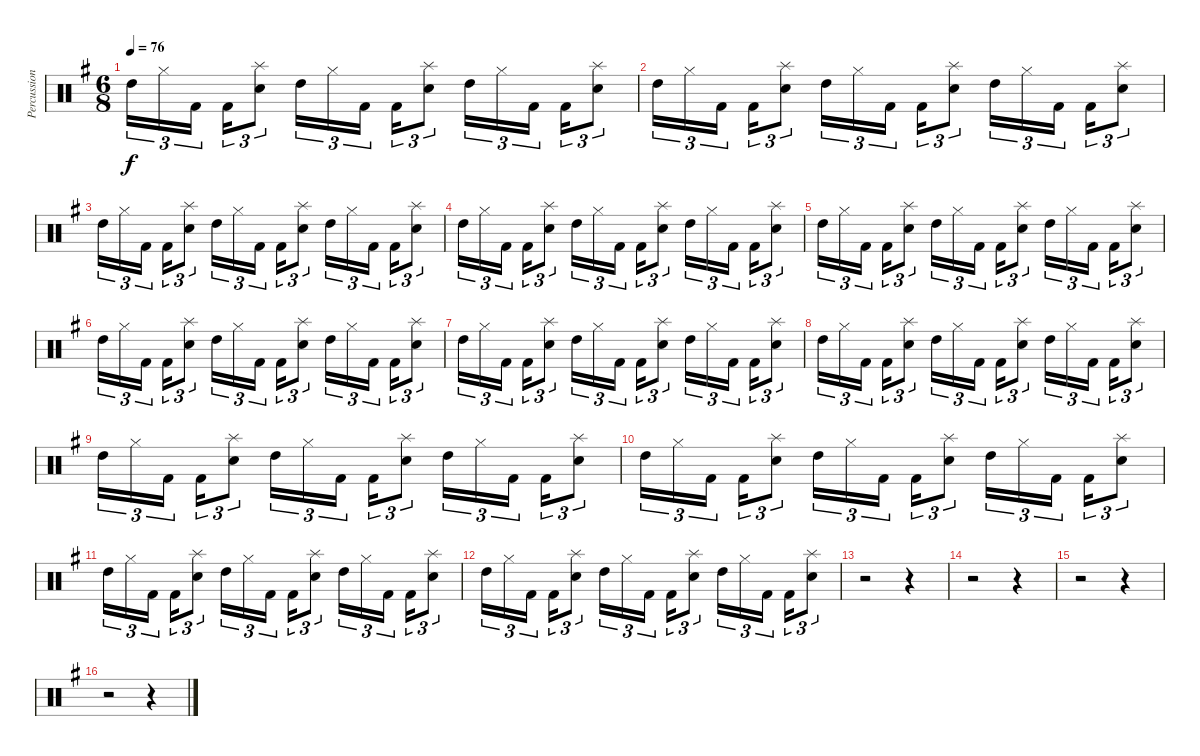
\track ("Percussions 3" "Percussion") {instrument percussion}
\staff {score}
\articulation defaults
\ts (6 8)
\tempo 76
\clef neutral
\ks g "High Tom (hit)".16{tu (3 2) dy f} "Hi-Hat (closed)".16{tu (3 2)} "Kick (hit) 2".16{tu (3 2)} "Kick (hit) 2".16{tu (3 2)}
("Splash (hit)" "Snare (hit) 2").8{tu (3 2)} "High Tom (hit)".16{tu (3 2)} "Hi-Hat (closed)".16{tu (3 2)} "Kick (hit) 2".16{tu (3 2)} "Kick (hit) 2".16{tu (3 2)} ("Splash (hit)" "Snare (hit) 2").8{tu (3 2)} "High Tom (hit)".16{tu (3 2)} "Hi-Hat (closed)".16{tu (3 2)} "Kick (hit) 2".16{tu (3 2)} "Kick (hit) 2".16{tu (3 2)} ("Splash (hit)" "Snare (hit) 2").8{tu (3 2)} |
"High Tom (hit)".16{tu (3 2)} "Hi-Hat (closed)".16{tu (3 2)} "Kick (hit) 2".16{tu (3 2)} "Kick (hit) 2".16{tu (3 2)} ("Splash (hit)" "Snare (hit) 2").8{tu (3 2)} "High Tom (hit)".16{tu (3 2)} "Hi-Hat (closed)".16{tu (3 2)} "Kick (hit) 2".16{tu (3 2)} "Kick (hit) 2".16{tu (3 2)} ("Splash (hit)" "Snare (hit) 2").8{tu (3 2)} "High Tom (hit)".16{tu (3 2)} "Hi-Hat (closed)".16{tu (3 2)} "Kick (hit) 2".16{tu (3 2)} "Kick (hit) 2".16{tu (3 2)} ("Splash (hit)" "Snare (hit) 2").8{tu (3 2)} |
"High Tom (hit)".16{tu (3 2)} "Hi-Hat (closed)".16{tu (3 2)} "Kick (hit) 2".16{tu (3 2)} "Kick (hit) 2".16{tu (3 2)} ("Splash (hit)" "Snare (hit) 2").8{tu (3 2)} "High Tom (hit)".16{tu (3 2)} "Hi-Hat (closed)".16{tu (3 2)} "Kick (hit) 2".16{tu (3 2)} "Kick (hit) 2".16{tu (3 2)} ("Splash (hit)" "Snare (hit) 2").8{tu (3 2)} "High Tom (hit)".16{tu (3 2)} "Hi-Hat (closed)".16{tu (3 2)} "Kick (hit) 2".16{tu (3 2)} "Kick (hit) 2".16{tu (3 2)} ("Splash (hit)" "Snare (hit) 2").8{tu (3 2)} |
"High Tom (hit)".16{tu (3 2)} "Hi-Hat (closed)".16{tu (3 2)} "Kick (hit) 2".16{tu (3 2)} "Kick (hit) 2".16{tu (3 2)} ("Splash (hit)" "Snare (hit) 2").8{tu (3 2)} "High Tom (hit)".16{tu (3 2)} "Hi-Hat (closed)".16{tu (3 2)} "Kick (hit) 2".16{tu (3 2)} "Kick (hit) 2".16{tu (3 2)} ("Splash (hit)" "Snare (hit) 2").8{tu (3 2)} "High Tom (hit)".16{tu (3 2)} "Hi-Hat (closed)".16{tu (3 2)} "Kick (hit) 2".16{tu (3 2)} "Kick (hit) 2".16{tu (3 2)} ("Splash (hit)" "Snare (hit) 2").8{tu (3 2)} |
"High Tom (hit)".16{tu (3 2)} "Hi-Hat (closed)".16{tu (3 2)} "Kick (hit) 2".16{tu (3 2)} "Kick (hit) 2".16{tu (3 2)} ("Splash (hit)" "Snare (hit) 2").8{tu (3 2)} "High Tom (hit)".16{tu (3 2)} "Hi-Hat (closed)".16{tu (3 2)} "Kick (hit) 2".16{tu (3 2)} "Kick (hit) 2".16{tu (3 2)} ("Splash (hit)" "Snare (hit) 2").8{tu (3 2)} "High Tom (hit)".16{tu (3 2)} "Hi-Hat (closed)".16{tu (3 2)} "Kick (hit) 2".16{tu (3 2)} "Kick (hit) 2".16{tu (3 2)} ("Splash (hit)" "Snare (hit) 2").8{tu (3 2)} |
"High Tom (hit)".16{tu (3 2)} "Hi-Hat (closed)".16{tu (3 2)} "Kick (hit) 2".16{tu (3 2)} "Kick (hit) 2".16{tu (3 2)} ("Splash (hit)" "Snare (hit) 2").8{tu (3 2)} "High Tom (hit)".16{tu (3 2)} "Hi-Hat (closed)".16{tu (3 2)} "Kick (hit) 2".16{tu (3 2)} "Kick (hit) 2".16{tu (3 2)} ("Splash (hit)" "Snare (hit) 2").8{tu (3 2)} "High Tom (hit)".16{tu (3 2)} "Hi-Hat (closed)".16{tu (3 2)} "Kick (hit) 2".16{tu (3 2)} "Kick (hit) 2".16{tu (3 2)} ("Splash (hit)" "Snare (hit) 2").8{tu (3 2)} |
"High Tom (hit)".16{tu (3 2)} "Hi-Hat (closed)".16{tu (3 2)} "Kick (hit) 2".16{tu (3 2)} "Kick (hit) 2".16{tu (3 2)} ("Splash (hit)" "Snare (hit) 2").8{tu (3 2)} "High Tom (hit)".16{tu (3 2)} "Hi-Hat (closed)".16{tu (3 2)} "Kick (hit) 2".16{tu (3 2)} "Kick (hit) 2".16{tu (3 2)} ("Splash (hit)" "Snare (hit) 2").8{tu (3 2)} "High Tom (hit)".16{tu (3 2)} "Hi-Hat (closed)".16{tu (3 2)} "Kick (hit) 2".16{tu (3 2)} "Kick (hit) 2".16{tu (3 2)} ("Splash (hit)" "Snare (hit) 2").8{tu (3 2)} |
"High Tom (hit)".16{tu (3 2)} "Hi-Hat (closed)".16{tu (3 2)} "Kick (hit) 2".16{tu (3 2)} "Kick (hit) 2".16{tu (3 2)} ("Splash (hit)" "Snare (hit) 2").8{tu (3 2)} "High Tom (hit)".16{tu (3 2)} "Hi-Hat (closed)".16{tu (3 2)} "Kick (hit) 2".16{tu (3 2)} "Kick (hit) 2".16{tu (3 2)} ("Splash (hit)" "Snare (hit) 2").8{tu (3 2)} "High Tom (hit)".16{tu (3 2)} "Hi-Hat (closed)".16{tu (3 2)} "Kick (hit) 2".16{tu (3 2)} "Kick (hit) 2".16{tu (3 2)} ("Splash (hit)" "Snare (hit) 2").8{tu (3 2)} |
"High Tom (hit)".16{tu (3 2)} "Hi-Hat (closed)".16{tu (3 2)} "Kick (hit) 2".16{tu (3 2)} "Kick (hit) 2".16{tu (3 2)} ("Splash (hit)" "Snare (hit) 2").8{tu (3 2)} "High Tom (hit)".16{tu (3 2)} "Hi-Hat (closed)".16{tu (3 2)} "Kick (hit) 2".16{tu (3 2)} "Kick (hit) 2".16{tu (3 2)} ("Splash (hit)" "Snare (hit) 2").8{tu (3 2)} "High Tom (hit)".16{tu (3 2)} "Hi-Hat (closed)".16{tu (3 2)} "Kick (hit) 2".16{tu (3 2)} "Kick (hit) 2".16{tu (3 2)} ("Splash (hit)" "Snare (hit) 2").8{tu (3 2)} |
"High Tom (hit)".16{tu (3 2)} "Hi-Hat (closed)".16{tu (3 2)} "Kick (hit) 2".16{tu (3 2)} "Kick (hit) 2".16{tu (3 2)} ("Splash (hit)" "Snare (hit) 2").8{tu (3 2)} "High Tom (hit)".16{tu (3 2)} "Hi-Hat (closed)".16{tu (3 2)} "Kick (hit) 2".16{tu (3 2)} "Kick (hit) 2".16{tu (3 2)} ("Splash (hit)" "Snare (hit) 2").8{tu (3 2)} "High Tom (hit)".16{tu (3 2)} "Hi-Hat (closed)".16{tu (3 2)} "Kick (hit) 2".16{tu (3 2)} "Kick (hit) 2".16{tu (3 2)} ("Splash (hit)" "Snare (hit) 2").8{tu (3 2)} |
"High Tom (hit)".16{tu (3 2)} "Hi-Hat (closed)".16{tu (3 2)} "Kick (hit) 2".16{tu (3 2)} "Kick (hit) 2".16{tu (3 2)} ("Splash (hit)" "Snare (hit) 2").8{tu (3 2)} "High Tom (hit)".16{tu (3 2)} "Hi-Hat (closed)".16{tu (3 2)} "Kick (hit) 2".16{tu (3 2)} "Kick (hit) 2".16{tu (3 2)} ("Splash (hit)" "Snare (hit) 2").8{tu (3 2)} "High Tom (hit)".16{tu (3 2)} "Hi-Hat (closed)".16{tu (3 2)} "Kick (hit) 2".16{tu (3 2)} "Kick (hit) 2".16{tu (3 2)} ("Splash (hit)" "Snare (hit) 2").8{tu (3 2)} |
"High Tom (hit)".16{tu (3 2)} "Hi-Hat (closed)".16{tu (3 2)} "Kick (hit) 2".16{tu (3 2)} "Kick (hit) 2".16{tu (3 2)} ("Splash (hit)" "Snare (hit) 2").8{tu (3 2)} "High Tom (hit)".16{tu (3 2)} "Hi-Hat (closed)".16{tu (3 2)} "Kick (hit) 2".16{tu (3 2)} "Kick (hit) 2".16{tu (3 2)} ("Splash (hit)" "Snare (hit) 2").8{tu (3 2)} "High Tom (hit)".16{tu (3 2)} "Hi-Hat (closed)".16{tu (3 2)} "Kick (hit) 2".16{tu (3 2)} "Kick (hit) 2".16{tu (3 2)} ("Splash (hit)" "Snare (hit) 2").8{tu (3 2)} |
r.2 r.4 |
r.2 r.4 |
r.2 r.4 |
r.2 r.4
